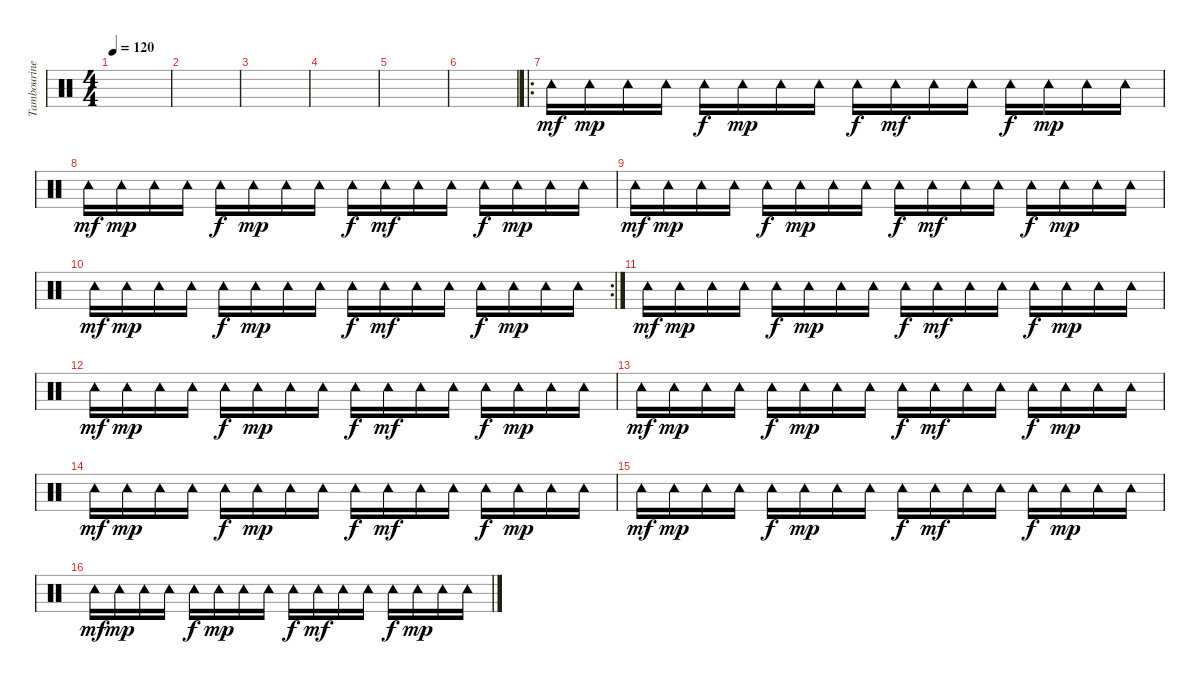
\track ("Tambourine Fills" "Tambourine") {instrument percussion}
\staff {score}
\articulation defaults
\ts (4 4)
\tempo 120
\clef neutral
\ks c
|
|
|
|
|
|
\ro "Tambourine (hit)".16{dy mf} "Tambourine (hit)".16{dy mp} "Tambourine (hit)".16 "Tambourine (hit)".16 "Tambourine (hit)".16{dy f} "Tambourine (hit)".16{dy mp} "Tambourine (hit)".16 "Tambourine (hit)".16 "Tambourine (hit)".16{dy f} "Tambourine (hit)".16{dy mf} "Tambourine (hit)".16 "Tambourine (hit)".16 "Tambourine (hit)".16{dy f} "Tambourine (hit)".16{dy mp} "Tambourine (hit)".16 "Tambourine (hit)".16
|
"Tambourine (hit)".16{dy mf} "Tambourine (hit)".16{dy mp} "Tambourine (hit)".16 "Tambourine (hit)".16 "Tambourine (hit)".16{dy f} "Tambourine (hit)".16{dy mp} "Tambourine (hit)".16 "Tambourine (hit)".16 "Tambourine (hit)".16{dy f} "Tambourine (hit)".16{dy mf} "Tambourine (hit)".16 "Tambourine (hit)".16 "Tambourine (hit)".16{dy f} "Tambourine (hit)".16{dy mp} "Tambourine (hit)".16 "Tambourine (hit)".16 |
"Tambourine (hit)".16{dy mf} "Tambourine (hit)".16{dy mp} "Tambourine (hit)".16 "Tambourine (hit)".16 "Tambourine (hit)".16{dy f} "Tambourine (hit)".16{dy mp} "Tambourine (hit)".16 "Tambourine (hit)".16 "Tambourine (hit)".16{dy f} "Tambourine (hit)".16{dy mf} "Tambourine (hit)".16 "Tambourine (hit)".16 "Tambourine (hit)".16{dy f} "Tambourine (hit)".16{dy mp} "Tambourine (hit)".16 "Tambourine (hit)".16 |
\rc 2 "Tambourine (hit)".16{dy mf} "Tambourine (hit)".16{dy mp} "Tambourine (hit)".16 "Tambourine (hit)".16 "Tambourine (hit)".16{dy f} "Tambourine (hit)".16{dy mp} "Tambourine (hit)".16 "Tambourine (hit)".16 "Tambourine (hit)".16{dy f} "Tambourine (hit)".16{dy mf} "Tambourine (hit)".16 "Tambourine (hit)".16 "Tambourine (hit)".16{dy f} "Tambourine (hit)".16{dy mp} "Tambourine (hit)".16 "Tambourine (hit)".16
|
"Tambourine (hit)".16{dy mf} "Tambourine (hit)".16{dy mp} "Tambourine (hit)".16 "Tambourine (hit)".16 "Tambourine (hit)".16{dy f} "Tambourine (hit)".16{dy mp} "Tambourine (hit)".16 "Tambourine (hit)".16 "Tambourine (hit)".16{dy f} "Tambourine (hit)".16{dy mf} "Tambourine (hit)".16 "Tambourine (hit)".16 "Tambourine (hit)".16{dy f} "Tambourine (hit)".16{dy mp} "Tambourine (hit)".16 "Tambourine (hit)".16 |
"Tambourine (hit)".16{dy mf} "Tambourine (hit)".16{dy mp} "Tambourine (hit)".16 "Tambourine (hit)".16 "Tambourine (hit)".16{dy f} "Tambourine (hit)".16{dy mp} "Tambourine (hit)".16 "Tambourine (hit)".16 "Tambourine (hit)".16{dy f} "Tambourine (hit)".16{dy mf} "Tambourine (hit)".16 "Tambourine (hit)".16 "Tambourine (hit)".16{dy f} "Tambourine (hit)".16{dy mp} "Tambourine (hit)".16 "Tambourine (hit)".16 |
"Tambourine (hit)".16{dy mf} "Tambourine (hit)".16{dy mp} "Tambourine (hit)".16 "Tambourine (hit)".16 "Tambourine (hit)".16{dy f} "Tambourine (hit)".16{dy mp} "Tambourine (hit)".16 "Tambourine (hit)".16 "Tambourine (hit)".16{dy f} "Tambourine (hit)".16{dy mf} "Tambourine (hit)".16 "Tambourine (hit)".16 "Tambourine (hit)".16{dy f} "Tambourine (hit)".16{dy mp} "Tambourine (hit)".16 "Tambourine (hit)".16 |
"Tambourine (hit)".16{dy mf} "Tambourine (hit)".16{dy mp} "Tambourine (hit)".16 "Tambourine (hit)".16 "Tambourine (hit)".16{dy f} "Tambourine (hit)".16{dy mp} "Tambourine (hit)".16 "Tambourine (hit)".16 "Tambourine (hit)".16{dy f} "Tambourine (hit)".16{dy mf} "Tambourine (hit)".16 "Tambourine (hit)".16 "Tambourine (hit)".16{dy f} "Tambourine (hit)".16{dy mp} "Tambourine (hit)".16 "Tambourine (hit)".16 |
"Tambourine (hit)".16{dy mf} "Tambourine (hit)".16{dy mp} "Tambourine (hit)".16 "Tambourine (hit)".16 "Tambourine (hit)".16{dy f} "Tambourine (hit)".16{dy mp} "Tambourine (hit)".16 "Tambourine (hit)".16 "Tambourine (hit)".16{dy f} "Tambourine (hit)".16{dy mf} "Tambourine (hit)".16 "Tambourine (hit)".16 "Tambourine (hit)".16{dy f} "Tambourine (hit)".16{dy mp} "Tambourine (hit)".16 "Tambourine (hit)".16 |
"Tambourine (hit)".16{dy mf} "Tambourine (hit)".16{dy mp} "Tambourine (hit)".16 "Tambourine (hit)".16 "Tambourine (hit)".16{dy f} "Tambourine (hit)".16{dy mp} "Tambourine (hit)".16 "Tambourine (hit)".16 "Tambourine (hit)".16{dy f} "Tambourine (hit)".16{dy mf} "Tambourine (hit)".16 "Tambourine (hit)".16 "Tambourine (hit)".16{dy f} "Tambourine (hit)".16{dy mp} "Tambourine (hit)".16 "Tambourine (hit)".16
